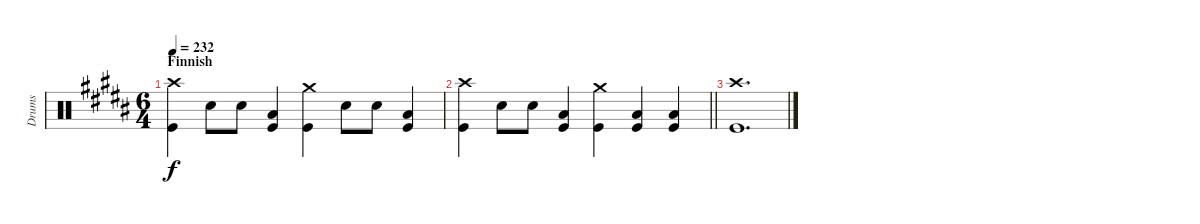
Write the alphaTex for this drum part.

\track ("Drums" "Drums") {instrument percussion}
\staff {score}
\articulation defaults
\ts (6 4)
\section ("" "Finnish")
\tempo 232
\clef neutral
\ks b
("Crash high (hit)" "Kick (hit)").4{dy f volume 6} "Snare (hit) 2".8 "Snare (hit) 2".8 ("Low Floor Tom (hit)" "Kick (hit)").4 ("Crash medium (hit)" "Kick (hit)").4 "Snare (hit) 2".8 "Snare (hit) 2".8 ("Low Floor Tom (hit)" "Kick (hit)").4 |
\barLineRight lightlight
("Crash high (hit)" "Kick (hit)").4 "Snare (hit) 2".8 "Snare (hit) 2".8 ("Low Floor Tom (hit)" "Kick (hit)").4 ("Crash medium (hit)" "Kick (hit)").4 ("Low Floor Tom (hit)" "Kick (hit)").4 ("Low Floor Tom (hit)" "Kick (hit)").4 |
("Crash high (hit)" "Kick (hit)").1{d}
